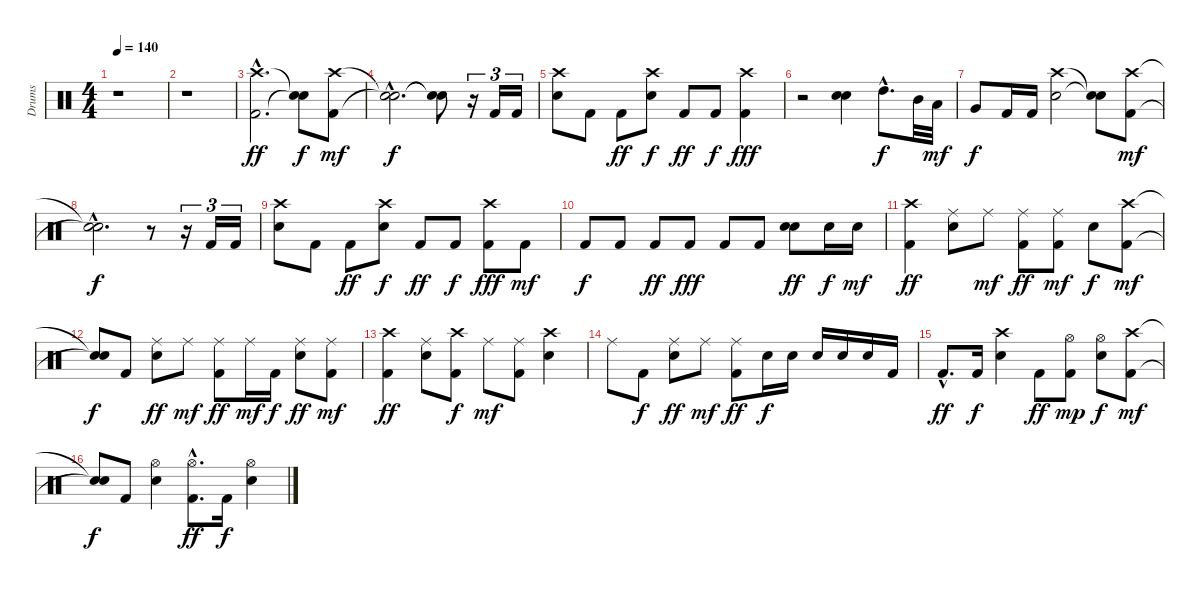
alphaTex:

\track ("Drums" "Drums") {instrument percussion}
\staff {score}
\articulation defaults
\ts (4 4)
\tempo 140
\clef neutral
\ks c
r.1{dy ff} |
r.1 |
("Crash high (hit)"{hac} "Kick (hit) 2"{hac}).2{d} ("Snare (hit)"{t} "Snare (hit)"{t}).8{dy f} ("Crash high (hit)" "Kick (hit) 2").8{dy mf} |
("Snare (hit)"{hac t} "Snare (hit)"{hac t}).2{d dy f} ("Snare (hit)"{t} "Snare (hit)"{t}).8 r.16{tu (3 2)} "Kick (hit) 2".16{tu (3 2)} "Kick (hit) 2".16{tu (3 2)} |
("Crash high (hit)" "Electric Snare (hit)").8 "Kick (hit) 2".8 "Kick (hit) 2".8{dy ff} ("Crash high (hit)" "Electric Snare (hit)").8{dy f} "Kick (hit) 2".8{dy ff} "Kick (hit) 2".8{dy f} ("Crash high (hit)" "Kick (hit) 2").4{dy fff} |
r.2 ("Electric Snare (hit)" "Electric Snare (hit)").4 "High Tom (hit)"{hac}.8{d dy f} "Mid Tom (hit)".32 "Low Tom (hit)".32{dy mf} |
"Very Low Tom (hit)".8{dy f} "Kick (hit) 2".16 "Kick (hit) 2".16 ("Crash high (hit)" "Electric Snare (hit)").2 ("Snare (hit)"{t} "Snare (hit)"{t}).8 ("Crash high (hit)" "Kick (hit) 2").8{dy mf} |
("Snare (hit)"{hac t} "Snare (hit)"{hac t}).2{d dy f} r.8 r.16{tu (3 2)} "Kick (hit) 2".16{tu (3 2)} "Kick (hit) 2".16{tu (3 2)} |
("Crash high (hit)" "Electric Snare (hit)").8 "Kick (hit) 2".8 "Kick (hit) 2".8{dy ff} ("Crash high (hit)" "Electric Snare (hit)").8{dy f} "Kick (hit) 2".8{dy ff} "Kick (hit) 2".8{dy f} ("Crash high (hit)" "Kick (hit) 2").8{dy fff} "Kick (hit) 2".8{dy mf} |
"Kick (hit) 2".8{dy f} "Kick (hit) 2".8 "Kick (hit) 2".8{dy ff} "Kick (hit) 2".8{dy fff} "Kick (hit) 2".8 "Kick (hit) 2".8 ("Electric Snare (hit)" "Electric Snare (hit)").8{dy ff} "Electric Snare (hit)".16{dy f} "Electric Snare (hit)".16{dy mf} |
("Crash high (hit)" "Kick (hit) 2").4{dy ff} ("Ride (middle)" "Electric Snare (hit)").8 "Ride (middle)".8{dy mf} ("Ride (middle)" "Kick (hit) 2").8{dy ff} ("Ride (middle)" "Kick (hit) 2").8{dy mf} "Electric Snare (hit)".8{dy f} ("Crash high (hit)" "Kick (hit) 2").8{dy mf} |
("Snare (hit)"{t} "Snare (hit)"{t}).8{dy f} "Kick (hit) 2".8 ("Ride (middle)" "Electric Snare (hit)").8{dy ff} "Ride (middle)".8{dy mf} ("Ride (middle)" "Kick (hit) 2").8{dy ff} "Ride (middle)".16{dy mf} "Kick (hit) 2".16{dy f} ("Ride (middle)" "Electric Snare (hit)").8{dy ff} ("Ride (middle)" "Kick (hit) 2").8{dy mf} |
("Crash high (hit)" "Kick (hit) 2").4{dy ff} ("Ride (middle)" "Electric Snare (hit)").8 ("Crash high (hit)" "Kick (hit) 2").8{dy f} "Ride (middle)".8{dy mf} ("Ride (middle)" "Kick (hit) 2").8 ("Crash high (hit)" "Electric Snare (hit)").4 |
"Ride (middle)".8 "Kick (hit) 2".8{dy f} ("Ride (middle)" "Electric Snare (hit)").8{dy ff} "Ride (middle)".8{dy mf} ("Ride (middle)" "Kick (hit) 2").8{dy ff} "Electric Snare (hit)".16{dy f} "Electric Snare (hit)".16 "Electric Snare (hit)".16 "Electric Snare (hit)".16 "Electric Snare (hit)".16 "Kick (hit) 2".16 |
"Kick (hit) 2"{hac}.8{d dy ff} "Kick (hit) 2".16{dy f} ("Crash high (hit)" "Electric Snare (hit)").4 "Kick (hit) 2".8{dy ff} ("Hi-Hat (open)" "Kick (hit) 2").8{dy mp} ("Hi-Hat (open)" "Electric Snare (hit)").8{dy f} ("Crash high (hit)" "Kick (hit) 2").8{dy mf} |
("Snare (hit)"{t} "Snare (hit)"{t}).8{dy f} "Kick (hit) 2".8 ("Hi-Hat (open)" "Electric Snare (hit)").4 ("Hi-Hat (open)"{hac} "Kick (hit) 2"{hac}).8{d dy ff} "Kick (hit) 2".16{dy f} ("Hi-Hat (open)" "Electric Snare (hit)").4
